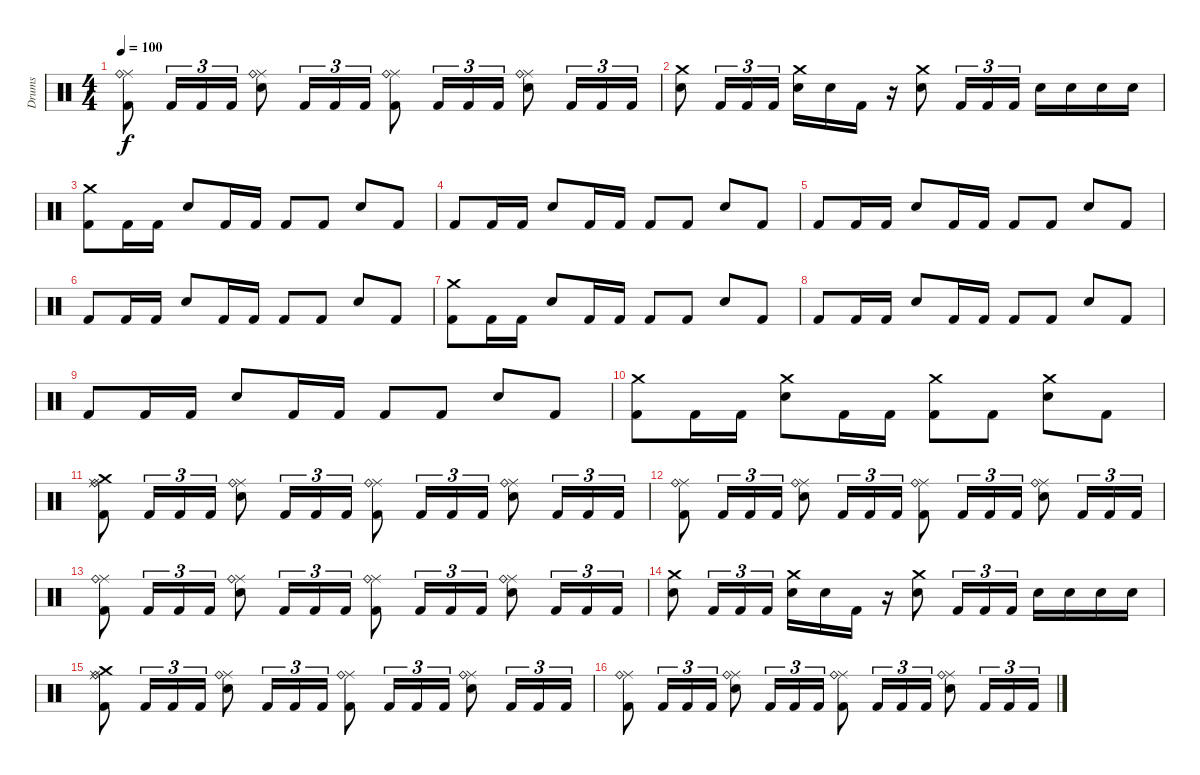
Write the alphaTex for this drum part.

\track ("Drums" "Drums") {instrument percussion}
\staff {score}
\articulation defaults
\ts (4 4)
\tempo 100
\clef neutral
\ks c
("Kick (hit) 2" "Ride (middle)" "Ride (bell)").8{dy f} "Kick (hit) 2".16{tu (3 2)} "Kick (hit) 2".16{tu (3 2)} "Kick (hit) 2".16{tu (3 2)} ("Snare (hit) 2" "Ride (middle)" "Ride (bell)").8 "Kick (hit) 2".16{tu (3 2)} "Kick (hit) 2".16{tu (3 2)} "Kick (hit) 2".16{tu (3 2)} ("Kick (hit) 2" "Ride (middle)" "Ride (bell)").8 "Kick (hit) 2".16{tu (3 2)} "Kick (hit) 2".16{tu (3 2)} "Kick (hit) 2".16{tu (3 2)} ("Snare (hit) 2" "Ride (middle)" "Ride (bell)").8 "Kick (hit) 2".16{tu (3 2)} "Kick (hit) 2".16{tu (3 2)} "Kick (hit) 2".16{tu (3 2)} |
("Snare (hit) 2" "Crash medium (hit)").8 "Kick (hit) 2".16{tu (3 2)} "Kick (hit) 2".16{tu (3 2)} "Kick (hit) 2".16{tu (3 2)} ("Snare (hit) 2" "Crash medium (hit)").16 "Snare (hit) 2".16 "Kick (hit) 2".16 r.16 ("Snare (hit) 2" "Crash medium (hit)").8 "Kick (hit) 2".16{tu (3 2)} "Kick (hit) 2".16{tu (3 2)} "Kick (hit) 2".16{tu (3 2)} "Snare (hit) 2".16 "Snare (hit) 2".16 "Snare (hit) 2".16 "Snare (hit) 2".16 |
("Crash medium (hit)" "Kick (hit) 2").8 "Kick (hit) 2".16 "Kick (hit) 2".16 "Snare (hit) 2".8 "Kick (hit) 2".16 "Kick (hit) 2".16 "Kick (hit) 2".8 "Kick (hit) 2".8 "Snare (hit) 2".8 "Kick (hit) 2".8 |
"Kick (hit) 2".8 "Kick (hit) 2".16 "Kick (hit) 2".16 "Snare (hit) 2".8 "Kick (hit) 2".16 "Kick (hit) 2".16 "Kick (hit) 2".8 "Kick (hit) 2".8 "Snare (hit) 2".8 "Kick (hit) 2".8 |
"Kick (hit) 2".8 "Kick (hit) 2".16 "Kick (hit) 2".16 "Snare (hit) 2".8 "Kick (hit) 2".16 "Kick (hit) 2".16 "Kick (hit) 2".8 "Kick (hit) 2".8 "Snare (hit) 2".8 "Kick (hit) 2".8 |
"Kick (hit) 2".8 "Kick (hit) 2".16 "Kick (hit) 2".16 "Snare (hit) 2".8 "Kick (hit) 2".16 "Kick (hit) 2".16 "Kick (hit) 2".8 "Kick (hit) 2".8 "Snare (hit) 2".8 "Kick (hit) 2".8 |
("Crash medium (hit)" "Kick (hit) 2").8 "Kick (hit) 2".16 "Kick (hit) 2".16 "Snare (hit) 2".8 "Kick (hit) 2".16 "Kick (hit) 2".16 "Kick (hit) 2".8 "Kick (hit) 2".8 "Snare (hit) 2".8 "Kick (hit) 2".8 |
"Kick (hit) 2".8 "Kick (hit) 2".16 "Kick (hit) 2".16 "Snare (hit) 2".8 "Kick (hit) 2".16 "Kick (hit) 2".16 "Kick (hit) 2".8 "Kick (hit) 2".8 "Snare (hit) 2".8 "Kick (hit) 2".8 |
"Kick (hit) 2".8 "Kick (hit) 2".16 "Kick (hit) 2".16 "Snare (hit) 2".8 "Kick (hit) 2".16 "Kick (hit) 2".16 "Kick (hit) 2".8 "Kick (hit) 2".8 "Snare (hit) 2".8 "Kick (hit) 2".8 |
("Crash medium (hit)" "Kick (hit) 2").8 "Kick (hit) 2".16 "Kick (hit) 2".16 ("Crash medium (hit)" "Snare (hit) 2").8 "Kick (hit) 2".16 "Kick (hit) 2".16 ("Crash medium (hit)" "Kick (hit) 2").8 "Kick (hit) 2".8 ("Crash medium (hit)" "Snare (hit) 2").8 "Kick (hit) 2".8 |
("Kick (hit) 2" "Crash medium (hit)" "Ride (middle)" "Ride (bell)").8 "Kick (hit) 2".16{tu (3 2)} "Kick (hit) 2".16{tu (3 2)} "Kick (hit) 2".16{tu (3 2)} ("Snare (hit) 2" "Ride (middle)" "Ride (bell)").8 "Kick (hit) 2".16{tu (3 2)} "Kick (hit) 2".16{tu (3 2)} "Kick (hit) 2".16{tu (3 2)} ("Kick (hit) 2" "Ride (middle)" "Ride (bell)").8 "Kick (hit) 2".16{tu (3 2)} "Kick (hit) 2".16{tu (3 2)} "Kick (hit) 2".16{tu (3 2)} ("Snare (hit) 2" "Ride (middle)" "Ride (bell)").8 "Kick (hit) 2".16{tu (3 2)} "Kick (hit) 2".16{tu (3 2)} "Kick (hit) 2".16{tu (3 2)} |
("Kick (hit) 2" "Ride (middle)" "Ride (bell)").8 "Kick (hit) 2".16{tu (3 2)} "Kick (hit) 2".16{tu (3 2)} "Kick (hit) 2".16{tu (3 2)} ("Snare (hit) 2" "Ride (middle)" "Ride (bell)").8 "Kick (hit) 2".16{tu (3 2)} "Kick (hit) 2".16{tu (3 2)} "Kick (hit) 2".16{tu (3 2)} ("Kick (hit) 2" "Ride (middle)" "Ride (bell)").8 "Kick (hit) 2".16{tu (3 2)} "Kick (hit) 2".16{tu (3 2)} "Kick (hit) 2".16{tu (3 2)} ("Snare (hit) 2" "Ride (middle)" "Ride (bell)").8 "Kick (hit) 2".16{tu (3 2)} "Kick (hit) 2".16{tu (3 2)} "Kick (hit) 2".16{tu (3 2)} |
("Kick (hit) 2" "Ride (middle)" "Ride (bell)").8 "Kick (hit) 2".16{tu (3 2)} "Kick (hit) 2".16{tu (3 2)} "Kick (hit) 2".16{tu (3 2)} ("Snare (hit) 2" "Ride (middle)" "Ride (bell)").8 "Kick (hit) 2".16{tu (3 2)} "Kick (hit) 2".16{tu (3 2)} "Kick (hit) 2".16{tu (3 2)} ("Kick (hit) 2" "Ride (middle)" "Ride (bell)").8 "Kick (hit) 2".16{tu (3 2)} "Kick (hit) 2".16{tu (3 2)} "Kick (hit) 2".16{tu (3 2)} ("Snare (hit) 2" "Ride (middle)" "Ride (bell)").8 "Kick (hit) 2".16{tu (3 2)} "Kick (hit) 2".16{tu (3 2)} "Kick (hit) 2".16{tu (3 2)} |
("Snare (hit) 2" "Crash medium (hit)").8 "Kick (hit) 2".16{tu (3 2)} "Kick (hit) 2".16{tu (3 2)} "Kick (hit) 2".16{tu (3 2)} ("Snare (hit) 2" "Crash medium (hit)").16 "Snare (hit) 2".16 "Kick (hit) 2".16 r.16 ("Snare (hit) 2" "Crash medium (hit)").8 "Kick (hit) 2".16{tu (3 2)} "Kick (hit) 2".16{tu (3 2)} "Kick (hit) 2".16{tu (3 2)} "Snare (hit) 2".16 "Snare (hit) 2".16 "Snare (hit) 2".16 "Snare (hit) 2".16 |
("Kick (hit) 2" "Crash medium (hit)" "Ride (middle)" "Ride (bell)").8 "Kick (hit) 2".16{tu (3 2)} "Kick (hit) 2".16{tu (3 2)} "Kick (hit) 2".16{tu (3 2)} ("Snare (hit) 2" "Ride (middle)" "Ride (bell)").8 "Kick (hit) 2".16{tu (3 2)} "Kick (hit) 2".16{tu (3 2)} "Kick (hit) 2".16{tu (3 2)} ("Kick (hit) 2" "Ride (middle)" "Ride (bell)").8 "Kick (hit) 2".16{tu (3 2)} "Kick (hit) 2".16{tu (3 2)} "Kick (hit) 2".16{tu (3 2)} ("Snare (hit) 2" "Ride (middle)" "Ride (bell)").8 "Kick (hit) 2".16{tu (3 2)} "Kick (hit) 2".16{tu (3 2)} "Kick (hit) 2".16{tu (3 2)} |
("Kick (hit) 2" "Ride (middle)" "Ride (bell)").8 "Kick (hit) 2".16{tu (3 2)} "Kick (hit) 2".16{tu (3 2)} "Kick (hit) 2".16{tu (3 2)} ("Snare (hit) 2" "Ride (middle)" "Ride (bell)").8 "Kick (hit) 2".16{tu (3 2)} "Kick (hit) 2".16{tu (3 2)} "Kick (hit) 2".16{tu (3 2)} ("Kick (hit) 2" "Ride (middle)" "Ride (bell)").8 "Kick (hit) 2".16{tu (3 2)} "Kick (hit) 2".16{tu (3 2)} "Kick (hit) 2".16{tu (3 2)} ("Snare (hit) 2" "Ride (middle)" "Ride (bell)").8 "Kick (hit) 2".16{tu (3 2)} "Kick (hit) 2".16{tu (3 2)} "Kick (hit) 2".16{tu (3 2)}
